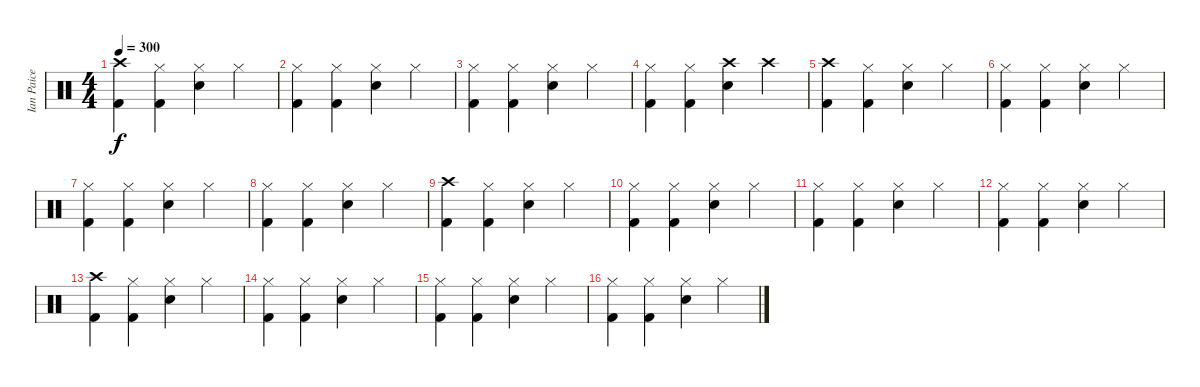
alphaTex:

\track ("Ian Paice" "Ian Paice") {instrument percussion}
\staff {score}
\articulation defaults
\ts (4 4)
\tempo 300
\clef neutral
\ks c
("Crash high (hit)" "Kick (hit) 2").4{dy f} ("Hi-Hat (closed)" "Kick (hit) 2").4 ("Hi-Hat (closed)" "Electric Snare (hit)").4 "Hi-Hat (closed)".4 |
("Hi-Hat (closed)" "Kick (hit) 2").4 ("Hi-Hat (closed)" "Kick (hit) 2").4 ("Hi-Hat (closed)" "Electric Snare (hit)").4 "Hi-Hat (closed)".4 |
("Hi-Hat (closed)" "Kick (hit) 2").4 ("Hi-Hat (closed)" "Kick (hit) 2").4 ("Hi-Hat (closed)" "Electric Snare (hit)").4 "Hi-Hat (closed)".4 |
("Hi-Hat (closed)" "Kick (hit) 2").4 ("Hi-Hat (closed)" "Kick (hit) 2").4 ("Crash high (hit)" "Electric Snare (hit)").4 "Crash high (hit)".4 |
("Crash high (hit)" "Kick (hit) 2").4 ("Hi-Hat (closed)" "Kick (hit) 2").4 ("Hi-Hat (closed)" "Electric Snare (hit)").4 "Hi-Hat (closed)".4 |
("Hi-Hat (closed)" "Kick (hit) 2").4 ("Hi-Hat (closed)" "Kick (hit) 2").4 ("Hi-Hat (closed)" "Electric Snare (hit)").4 "Hi-Hat (closed)".4 |
("Hi-Hat (closed)" "Kick (hit) 2").4 ("Hi-Hat (closed)" "Kick (hit) 2").4 ("Hi-Hat (closed)" "Electric Snare (hit)").4 "Hi-Hat (closed)".4 |
("Hi-Hat (closed)" "Kick (hit) 2").4 ("Hi-Hat (closed)" "Kick (hit) 2").4 ("Hi-Hat (closed)" "Electric Snare (hit)").4 "Hi-Hat (closed)".4 |
("Crash high (hit)" "Kick (hit) 2").4 ("Hi-Hat (closed)" "Kick (hit) 2").4 ("Hi-Hat (closed)" "Electric Snare (hit)").4 "Hi-Hat (closed)".4 |
("Hi-Hat (closed)" "Kick (hit) 2").4 ("Hi-Hat (closed)" "Kick (hit) 2").4 ("Hi-Hat (closed)" "Electric Snare (hit)").4 "Hi-Hat (closed)".4 |
("Hi-Hat (closed)" "Kick (hit) 2").4 ("Hi-Hat (closed)" "Kick (hit) 2").4 ("Hi-Hat (closed)" "Electric Snare (hit)").4 "Hi-Hat (closed)".4 |
("Hi-Hat (closed)" "Kick (hit) 2").4 ("Hi-Hat (closed)" "Kick (hit) 2").4 ("Hi-Hat (closed)" "Electric Snare (hit)").4 "Hi-Hat (closed)".4 |
("Crash high (hit)" "Kick (hit) 2").4 ("Hi-Hat (closed)" "Kick (hit) 2").4 ("Hi-Hat (closed)" "Electric Snare (hit)").4 "Hi-Hat (closed)".4 |
("Hi-Hat (closed)" "Kick (hit) 2").4 ("Hi-Hat (closed)" "Kick (hit) 2").4 ("Hi-Hat (closed)" "Electric Snare (hit)").4 "Hi-Hat (closed)".4 |
("Hi-Hat (closed)" "Kick (hit) 2").4 ("Hi-Hat (closed)" "Kick (hit) 2").4 ("Hi-Hat (closed)" "Electric Snare (hit)").4 "Hi-Hat (closed)".4 |
("Hi-Hat (closed)" "Kick (hit) 2").4 ("Hi-Hat (closed)" "Kick (hit) 2").4 ("Hi-Hat (closed)" "Electric Snare (hit)").4 "Hi-Hat (closed)".4
